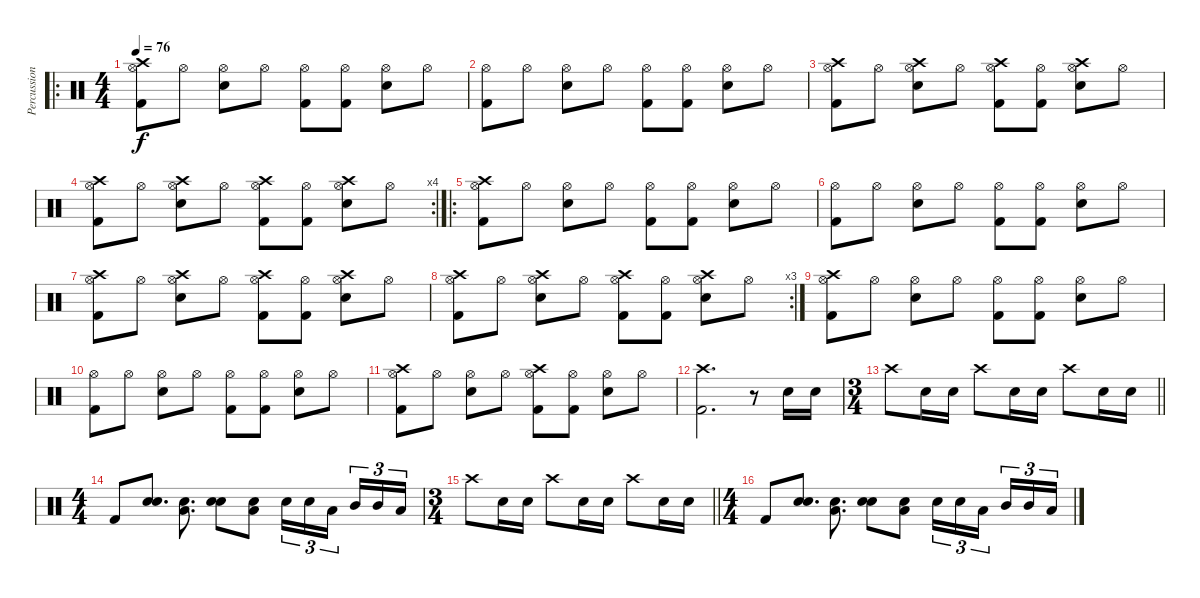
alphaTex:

\track ("Percussioni" "Percussion") {instrument percussion}
\staff {score}
\articulation defaults
\ro
\ts (4 4)
\tempo 76
\clef neutral
\ks c
("Hi-Hat (open)" "Kick (hit) 2" "Crash high (hit)").8{dy f} "Hi-Hat (open)".8 ("Hi-Hat (open)" "Electric Snare (hit)").8 "Hi-Hat (open)".8 ("Hi-Hat (open)" "Kick (hit) 2").8 ("Hi-Hat (open)" "Kick (hit) 2").8 ("Hi-Hat (open)" "Electric Snare (hit)").8 "Hi-Hat (open)".8 |
("Hi-Hat (open)" "Kick (hit) 2").8 "Hi-Hat (open)".8 ("Hi-Hat (open)" "Electric Snare (hit)").8 "Hi-Hat (open)".8 ("Hi-Hat (open)" "Kick (hit) 2").8 ("Hi-Hat (open)" "Kick (hit) 2").8 ("Hi-Hat (open)" "Electric Snare (hit)").8 "Hi-Hat (open)".8 |
("Hi-Hat (open)" "Kick (hit) 2" "Crash high (hit)").8 "Hi-Hat (open)".8 ("Hi-Hat (open)" "Electric Snare (hit)" "Crash high (hit)").8 "Hi-Hat (open)".8 ("Hi-Hat (open)" "Kick (hit) 2" "Crash high (hit)").8 ("Hi-Hat (open)" "Kick (hit) 2").8 ("Hi-Hat (open)" "Electric Snare (hit)" "Crash high (hit)").8 "Hi-Hat (open)".8 |
\rc 4
("Hi-Hat (open)" "Kick (hit) 2" "Crash high (hit)").8 "Hi-Hat (open)".8 ("Hi-Hat (open)" "Electric Snare (hit)" "Crash high (hit)").8 "Hi-Hat (open)".8 ("Hi-Hat (open)" "Kick (hit) 2" "Crash high (hit)").8 ("Hi-Hat (open)" "Kick (hit) 2").8 ("Hi-Hat (open)" "Electric Snare (hit)" "Crash high (hit)").8 "Hi-Hat (open)".8 |
\ro
("Hi-Hat (open)" "Kick (hit) 2" "Crash high (hit)").8 "Hi-Hat (open)".8 ("Hi-Hat (open)" "Electric Snare (hit)").8 "Hi-Hat (open)".8 ("Hi-Hat (open)" "Kick (hit) 2").8 ("Hi-Hat (open)" "Kick (hit) 2").8 ("Hi-Hat (open)" "Electric Snare (hit)").8 "Hi-Hat (open)".8 |
("Hi-Hat (open)" "Kick (hit) 2").8 "Hi-Hat (open)".8 ("Hi-Hat (open)" "Electric Snare (hit)").8 "Hi-Hat (open)".8 ("Hi-Hat (open)" "Kick (hit) 2").8 ("Hi-Hat (open)" "Kick (hit) 2").8 ("Hi-Hat (open)" "Electric Snare (hit)").8 "Hi-Hat (open)".8 |
("Hi-Hat (open)" "Kick (hit) 2" "Crash high (hit)").8 "Hi-Hat (open)".8 ("Hi-Hat (open)" "Electric Snare (hit)" "Crash high (hit)").8 "Hi-Hat (open)".8 ("Hi-Hat (open)" "Kick (hit) 2" "Crash high (hit)").8 ("Hi-Hat (open)" "Kick (hit) 2").8 ("Hi-Hat (open)" "Electric Snare (hit)" "Crash high (hit)").8 "Hi-Hat (open)".8 |
\rc 3
("Hi-Hat (open)" "Kick (hit) 2" "Crash high (hit)").8 "Hi-Hat (open)".8 ("Hi-Hat (open)" "Electric Snare (hit)" "Crash high (hit)").8 "Hi-Hat (open)".8 ("Hi-Hat (open)" "Kick (hit) 2" "Crash high (hit)").8 ("Hi-Hat (open)" "Kick (hit) 2").8 ("Hi-Hat (open)" "Electric Snare (hit)" "Crash high (hit)").8 "Hi-Hat (open)".8 |
("Hi-Hat (open)" "Kick (hit) 2" "Crash high (hit)").8 "Hi-Hat (open)".8 ("Hi-Hat (open)" "Electric Snare (hit)").8 "Hi-Hat (open)".8 ("Hi-Hat (open)" "Kick (hit) 2").8 ("Hi-Hat (open)" "Kick (hit) 2").8 ("Hi-Hat (open)" "Electric Snare (hit)").8 "Hi-Hat (open)".8 |
("Hi-Hat (open)" "Kick (hit) 2").8 "Hi-Hat (open)".8 ("Hi-Hat (open)" "Electric Snare (hit)").8 "Hi-Hat (open)".8 ("Hi-Hat (open)" "Kick (hit) 2").8 ("Hi-Hat (open)" "Kick (hit) 2").8 ("Hi-Hat (open)" "Electric Snare (hit)").8 "Hi-Hat (open)".8 |
("Hi-Hat (open)" "Kick (hit) 2" "Crash high (hit)").8 "Hi-Hat (open)".8 ("Hi-Hat (open)" "Electric Snare (hit)").8 "Hi-Hat (open)".8 ("Hi-Hat (open)" "Kick (hit) 2" "Crash high (hit)").8 ("Hi-Hat (open)" "Kick (hit) 2").8 ("Hi-Hat (open)" "Electric Snare (hit)").8 "Hi-Hat (open)".8 |
("Crash high (hit)" "Kick (hit) 2").2{d} r.8 "Electric Snare (hit)".16 "Electric Snare (hit)".16 |
\ts (3 4)
\barLineRight lightlight "Crash high (hit)".8 "Electric Snare (hit)".16 "Electric Snare (hit)".16 "Crash high (hit)".8 "Electric Snare (hit)".16 "Electric Snare (hit)".16 "Crash high (hit)".8 "Electric Snare (hit)".16 "Electric Snare (hit)".16
|
\ts (4 4)
"Kick (hit) 2".8 ("Snare (hit) 2" "Electric Snare (hit)").8{d} ("Low Tom (hit)" "Electric Snare (hit)").8{d} ("Snare (hit) 2" "Electric Snare (hit)").8 ("Low Tom (hit)" "Electric Snare (hit)").8 "Electric Snare (hit)".16{tu (3 2)} "Electric Snare (hit)".16{tu (3 2)} "Low Tom (hit)".16{tu (3 2) beam splitsecondary} "Mid Tom (hit)".16{tu (3 2)} "Mid Tom (hit)".16{tu (3 2)} "Low Floor Tom (hit)".16{tu (3 2)} |
\ts (3 4)
\barLineRight lightlight "Crash high (hit)".8 "Electric Snare (hit)".16 "Electric Snare (hit)".16 "Crash high (hit)".8 "Electric Snare (hit)".16 "Electric Snare (hit)".16 "Crash high (hit)".8 "Electric Snare (hit)".16 "Electric Snare (hit)".16
|
\ts (4 4)
"Kick (hit) 2".8 ("Snare (hit) 2" "Electric Snare (hit)").8{d} ("Low Tom (hit)" "Electric Snare (hit)").8{d} ("Snare (hit) 2" "Electric Snare (hit)").8 ("Low Tom (hit)" "Electric Snare (hit)").8 "Electric Snare (hit)".16{tu (3 2)} "Electric Snare (hit)".16{tu (3 2)} "Low Tom (hit)".16{tu (3 2) beam splitsecondary} "Mid Tom (hit)".16{tu (3 2)} "Mid Tom (hit)".16{tu (3 2)} "Low Floor Tom (hit)".16{tu (3 2)}
